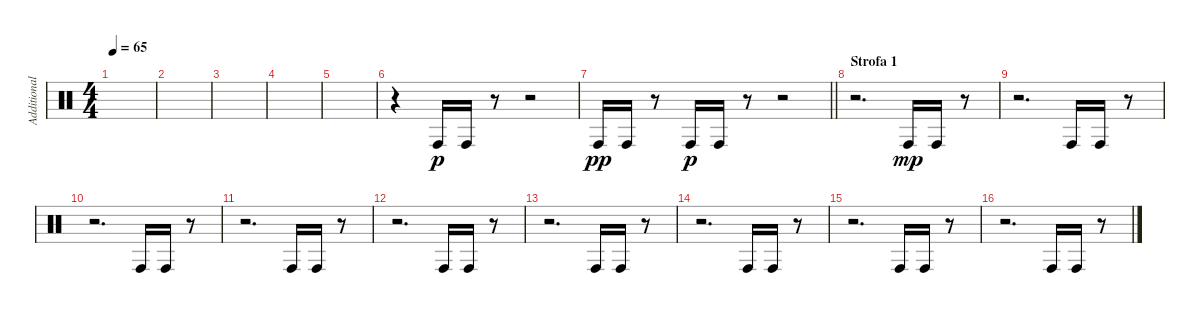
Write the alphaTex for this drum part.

\track ("Additional Percussions" "Additional") {instrument percussion}
\staff {score}
\articulation defaults
\ts (4 4)
\tempo 65
\clef neutral
\ks c
|
|
|
|
|
r.4 "Conga high (hit)".16{dy p} "Conga high (hit)".16 r.8 r.2 |
\barLineRight lightlight "Conga high (hit)".16{dy pp} "Conga high (hit)".16
r.8 "Conga high (hit)".16{dy p} "Conga high (hit)".16 r.8 r.2 |
\section ("" "Strofa 1")
r.2{d} "Conga high (hit)".16{dy mp} "Conga high (hit)".16 r.8 |
r.2{d} "Conga high (hit)".16 "Conga high (hit)".16 r.8 |
r.2{d} "Conga high (hit)".16 "Conga high (hit)".16 r.8 |
r.2{d} "Conga high (hit)".16 "Conga high (hit)".16 r.8 |
r.2{d} "Conga high (hit)".16 "Conga high (hit)".16 r.8 |
r.2{d} "Conga high (hit)".16 "Conga high (hit)".16 r.8 |
r.2{d} "Conga high (hit)".16 "Conga high (hit)".16 r.8 |
r.2{d} "Conga high (hit)".16 "Conga high (hit)".16 r.8 |
r.2{d} "Conga high (hit)".16 "Conga high (hit)".16 r.8
